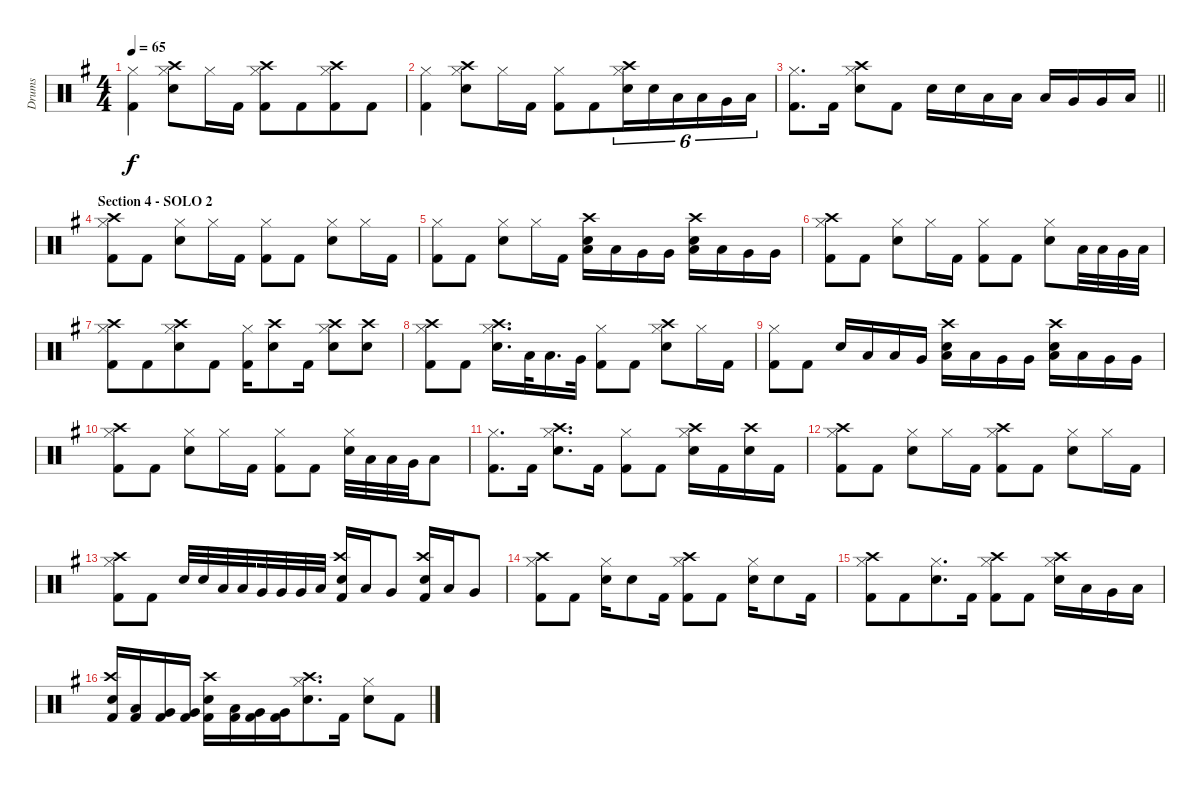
\track ("Drums" "Drums") {instrument percussion}
\staff {score}
\articulation defaults
\ts (4 4)
\tempo 65
\clef neutral
\ks eminor
("Hi-Hat (closed)" "Kick (hit) 2").4{dy f} ("Crash high (hit)" "Hi-Hat (closed)" "Electric Snare (hit)").8 "Hi-Hat (closed)".16 "Kick (hit) 2".16 ("Crash high (hit)" "Hi-Hat (closed)" "Kick (hit) 2").8 "Kick (hit) 2".8{beam merge} ("Crash high (hit)" "Hi-Hat (closed)" "Kick (hit) 2").8 "Kick (hit) 2".8 |
("Hi-Hat (closed)" "Kick (hit) 2").4 ("Crash high (hit)" "Hi-Hat (closed)" "Electric Snare (hit)").8 "Hi-Hat (closed)".16 "Kick (hit) 2".16 ("Hi-Hat (closed)" "Kick (hit) 2").8 "Kick (hit) 2".8{beam merge} ("Crash high (hit)" "Hi-Hat (closed)" "Electric Snare (hit)").16{tu (6 4)} "Electric Snare (hit)".16{tu (6 4)} "Low Tom (hit)".16{tu (6 4)} "Low Tom (hit)".16{tu (6 4)} "Very Low Tom (hit)".16{tu (6 4)} "Low Floor Tom (hit)".16{tu (6 4)} |
\barLineRight lightlight
("Hi-Hat (closed)" "Kick (hit) 2").8{d} "Kick (hit) 2".16 ("Crash high (hit)" "Hi-Hat (closed)" "Electric Snare (hit)").8 "Kick (hit) 2".8 "Electric Snare (hit)".16 "Electric Snare (hit)".16 "Low Tom (hit)".16 "Low Tom (hit)".16 "Low Tom (hit)".16 "Very Low Tom (hit)".16 "Very Low Tom (hit)".16 "Low Floor Tom (hit)".16 |
\section ("" "Section 4 - SOLO 2")
("Crash high (hit)" "Hi-Hat (closed)" "Kick (hit) 2").8 "Kick (hit) 2".8 ("Hi-Hat (closed)" "Electric Snare (hit)").8 "Hi-Hat (closed)".16 "Kick (hit) 2".16 ("Hi-Hat (closed)" "Kick (hit) 2").8 "Kick (hit) 2".8 ("Hi-Hat (closed)" "Electric Snare (hit)").8 "Hi-Hat (closed)".16 "Kick (hit) 2".16 |
("Hi-Hat (closed)" "Kick (hit) 2").8 "Kick (hit) 2".8 ("Hi-Hat (closed)" "Electric Snare (hit)").8 "Hi-Hat (closed)".16 "Kick (hit) 2".16 ("Crash high (hit)" "Low Tom (hit)" "Electric Snare (hit)").16 "Low Tom (hit)".16 "Very Low Tom (hit)".16 "Very Low Tom (hit)".16 ("Crash high (hit)" "Low Tom (hit)" "Electric Snare (hit)").16 "Low Tom (hit)".16 "Very Low Tom (hit)".16 "Very Low Tom (hit)".16 |
("Crash high (hit)" "Hi-Hat (closed)" "Kick (hit) 2").8 "Kick (hit) 2".8 ("Hi-Hat (closed)" "Electric Snare (hit)").8 "Hi-Hat (closed)".16 "Kick (hit) 2".16 ("Hi-Hat (closed)" "Kick (hit) 2").8 "Kick (hit) 2".8 ("Hi-Hat (closed)" "Electric Snare (hit)").8 "Low Tom (hit)".32 "Low Tom (hit)".32 "Very Low Tom (hit)".32 "Low Floor Tom (hit)".32 |
("Crash high (hit)" "Hi-Hat (closed)" "Kick (hit) 2").8 "Kick (hit) 2".8{beam merge} ("Crash high (hit)" "Hi-Hat (closed)" "Electric Snare (hit)").8 "Kick (hit) 2".8 ("Hi-Hat (closed)" "Kick (hit) 2").16 ("Crash high (hit)" "Electric Snare (hit)").8 "Kick (hit) 2".16 ("Crash high (hit)" "Hi-Hat (closed)" "Electric Snare (hit)").8 ("Crash high (hit)" "Electric Snare (hit)").8 |
("Crash high (hit)" "Hi-Hat (closed)" "Kick (hit) 2").8 "Kick (hit) 2".8 ("Crash high (hit)" "Hi-Hat (closed)" "Electric Snare (hit)").16{d} "Low Tom (hit)".32 "Low Tom (hit)".16{d} "Very Low Tom (hit)".32 ("Hi-Hat (closed)" "Kick (hit) 2").8 "Kick (hit) 2".8 ("Crash high (hit)" "Hi-Hat (closed)" "Electric Snare (hit)").8 "Hi-Hat (closed)".16 "Kick (hit) 2".16 |
("Hi-Hat (closed)" "Kick (hit) 2").8 "Kick (hit) 2".8 "Electric Snare (hit)".16 "Low Tom (hit)".16 "Low Tom (hit)".16 "Very Low Tom (hit)".16 ("Crash high (hit)" "Low Tom (hit)" "Electric Snare (hit)").16 "Low Tom (hit)".16 "Very Low Tom (hit)".16 "Very Low Tom (hit)".16 ("Crash high (hit)" "Low Tom (hit)" "Electric Snare (hit)").16 "Low Tom (hit)".16 "Very Low Tom (hit)".16 "Very Low Tom (hit)".16 |
("Crash high (hit)" "Hi-Hat (closed)" "Kick (hit) 2").8 "Kick (hit) 2".8 ("Hi-Hat (closed)" "Electric Snare (hit)").8 "Hi-Hat (closed)".16 "Kick (hit) 2".16 ("Hi-Hat (closed)" "Kick (hit) 2").8 "Kick (hit) 2".8 ("Hi-Hat (closed)" "Electric Snare (hit)").32 "Low Tom (hit)".32 "Low Tom (hit)".32 "Very Low Tom (hit)".32 "Low Floor Tom (hit)".8 |
("Hi-Hat (closed)" "Kick (hit) 2").8{d} "Kick (hit) 2".16 ("Crash high (hit)" "Hi-Hat (closed)" "Electric Snare (hit)").8{d} "Kick (hit) 2".16 ("Hi-Hat (closed)" "Kick (hit) 2").8 "Kick (hit) 2".8 ("Crash high (hit)" "Hi-Hat (closed)" "Electric Snare (hit)").16 "Kick (hit) 2".16 ("Crash high (hit)" "Electric Snare (hit)").16 "Kick (hit) 2".16 |
("Crash high (hit)" "Hi-Hat (closed)" "Kick (hit) 2").8 "Kick (hit) 2".8 ("Hi-Hat (closed)" "Electric Snare (hit)").8 "Hi-Hat (closed)".16 "Kick (hit) 2".16 ("Crash high (hit)" "Hi-Hat (closed)" "Kick (hit) 2").8 "Kick (hit) 2".8 ("Hi-Hat (closed)" "Electric Snare (hit)").8 "Hi-Hat (closed)".16 "Kick (hit) 2".16 |
("Crash high (hit)" "Hi-Hat (closed)" "Kick (hit) 2").8 "Kick (hit) 2".8 "Electric Snare (hit)".32 "Electric Snare (hit)".32 "Low Tom (hit)".32 "Low Tom (hit)".32{beam splitsecondary} "Very Low Tom (hit)".32 "Very Low Tom (hit)".32 "Very Low Tom (hit)".32 "Low Floor Tom (hit)".32 ("Crash high (hit)" "Electric Snare (hit)" "Kick (hit) 2").16 "Low Tom (hit)".16 "Very Low Tom (hit)".8 ("Crash high (hit)" "Electric Snare (hit)" "Kick (hit) 2").16 "Low Tom (hit)".16 "Very Low Tom (hit)".8 |
("Crash high (hit)" "Hi-Hat (closed)" "Kick (hit) 2").8 "Kick (hit) 2".8 ("Hi-Hat (closed)" "Electric Snare (hit)").16 "Electric Snare (hit)".8 "Kick (hit) 2".16 ("Crash high (hit)" "Hi-Hat (closed)" "Kick (hit) 2").8 "Kick (hit) 2".8 ("Hi-Hat (closed)" "Electric Snare (hit)").16 "Electric Snare (hit)".8 "Kick (hit) 2".16 |
("Crash high (hit)" "Hi-Hat (closed)" "Kick (hit) 2").8 "Kick (hit) 2".8{beam merge} ("Hi-Hat (closed)" "Electric Snare (hit)").8{d} "Kick (hit) 2".16 ("Crash high (hit)" "Hi-Hat (closed)" "Kick (hit) 2").8 "Kick (hit) 2".8 ("Crash high (hit)" "Hi-Hat (closed)" "Electric Snare (hit)").16 "Low Tom (hit)".16 "Very Low Tom (hit)".16 "Low Floor Tom (hit)".16 |
("Crash high (hit)" "Electric Snare (hit)" "Kick (hit) 2").16 ("Low Tom (hit)" "Kick (hit) 2").16 ("Very Low Tom (hit)" "Kick (hit) 2").16 ("Very Low Tom (hit)" "Kick (hit) 2").16 ("Crash high (hit)" "Electric Snare (hit)" "Kick (hit) 2").16 ("Low Tom (hit)" "Kick (hit) 2").16 ("Very Low Tom (hit)" "Kick (hit) 2").16 ("Very Low Tom (hit)" "Kick (hit) 2").16{beam merge} ("Crash high (hit)" "Hi-Hat (closed)" "Electric Snare (hit)").8{d} "Kick (hit) 2".16 ("Hi-Hat (closed)" "Electric Snare (hit)").8 "Kick (hit) 2".8
